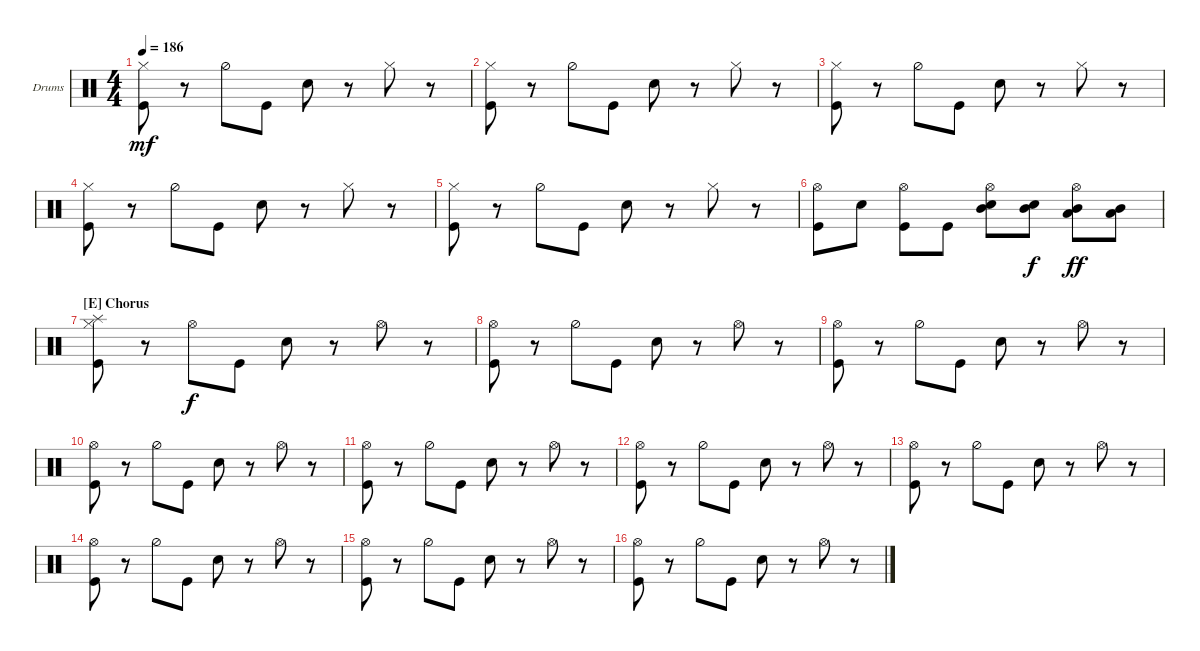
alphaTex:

\defaultSystemsLayout 4
\bracketExtendMode groupsimilarinstruments
\firstSystemTrackNameOrientation horizontal
\otherSystemsTrackNameOrientation horizontal
\track ("Drumkit" "Drums") {instrument percussion}
\staff {score}
\articulation defaults
\ts (4 4)
\tempo 186
\clef neutral
\ks c
("Hi-Hat (closed)" "Kick (hit)").8{dy mf} r.8 "Hi-Hat (half)".8 "Kick (hit)".8 "Snare (hit) 2".8 r.8 "Hi-Hat (closed)".8 r.8 |
("Hi-Hat (closed)" "Kick (hit)").8 r.8 "Hi-Hat (half)".8 "Kick (hit)".8 "Snare (hit) 2".8 r.8 "Hi-Hat (closed)".8 r.8 |
("Hi-Hat (closed)" "Kick (hit)").8 r.8 "Hi-Hat (half)".8 "Kick (hit)".8 "Snare (hit) 2".8 r.8 "Hi-Hat (closed)".8 r.8 |
("Hi-Hat (closed)" "Kick (hit)").8 r.8 "Hi-Hat (half)".8 "Kick (hit)".8 "Snare (hit) 2".8 r.8 "Hi-Hat (closed)".8 r.8 |
("Hi-Hat (closed)" "Kick (hit)").8 r.8 "Hi-Hat (half)".8 "Kick (hit)".8 "Snare (hit) 2".8 r.8 "Hi-Hat (closed)".8 r.8 |
("Hi-Hat (open)" "Kick (hit)").8 "Snare (hit) 2".8 ("Kick (hit)" "Hi-Hat (open)").8 "Kick (hit)".8 ("Snare (hit) 2" "Hi-Hat (open)" "Mid Tom (hit)").8 ("Mid Tom (hit)" "Snare (hit) 2").8{dy f} ("Hi-Hat (open)" "Low Tom (hit)" "Mid Tom (hit)").8{dy ff} ("Low Tom (hit)" "Mid Tom (hit)").8 |
\section ("E" "Chorus")
("Kick (hit)" "Hi-Hat (closed)" "Splash (hit)").8 r.8 "Hi-Hat (open)".8{dy f} "Kick (hit)".8 "Snare (hit) 2".8 r.8 "Hi-Hat (open)".8 r.8 |
("Hi-Hat (open)" "Kick (hit)").8 r.8 "Hi-Hat (half)".8 "Kick (hit)".8 "Snare (hit) 2".8 r.8 "Hi-Hat (open)".8 r.8 |
("Hi-Hat (open)" "Kick (hit)").8 r.8 "Hi-Hat (half)".8 "Kick (hit)".8 "Snare (hit) 2".8 r.8 "Hi-Hat (open)".8 r.8 |
("Hi-Hat (open)" "Kick (hit)").8 r.8 "Hi-Hat (half)".8 "Kick (hit)".8 "Snare (hit) 2".8 r.8 "Hi-Hat (open)".8 r.8 |
("Hi-Hat (open)" "Kick (hit)").8 r.8 "Hi-Hat (half)".8 "Kick (hit)".8 "Snare (hit) 2".8 r.8 "Hi-Hat (open)".8 r.8 |
("Hi-Hat (open)" "Kick (hit)").8 r.8 "Hi-Hat (half)".8 "Kick (hit)".8 "Snare (hit) 2".8 r.8 "Hi-Hat (open)".8 r.8 |
("Hi-Hat (open)" "Kick (hit)").8 r.8 "Hi-Hat (half)".8 "Kick (hit)".8 "Snare (hit) 2".8 r.8 "Hi-Hat (open)".8 r.8 |
("Hi-Hat (open)" "Kick (hit)").8 r.8 "Hi-Hat (half)".8 "Kick (hit)".8 "Snare (hit) 2".8 r.8 "Hi-Hat (open)".8 r.8 |
("Hi-Hat (open)" "Kick (hit)").8 r.8 "Hi-Hat (half)".8 "Kick (hit)".8 "Snare (hit) 2".8 r.8 "Hi-Hat (open)".8 r.8 |
("Hi-Hat (open)" "Kick (hit)").8 r.8 "Hi-Hat (half)".8 "Kick (hit)".8 "Snare (hit) 2".8 r.8 "Hi-Hat (open)".8 r.8
